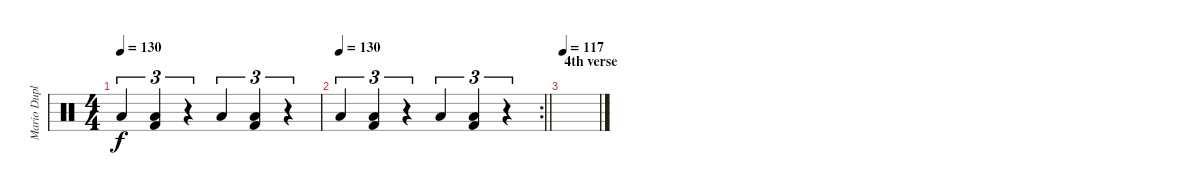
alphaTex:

\track ("Mario Duplantier" "Mario Dupl") {instrument percussion}
\staff {score}
\articulation defaults
\ts (4 4)
\tempo 130
\clef neutral
\ks c "Low Floor Tom (hit)".4{tu (3 2) dy f}
("Low Floor Tom (hit)" "Kick (hit) 2").4{tu (3 2)} r.4{tu (3 2)} "Low Floor Tom (hit)".4{tu (3 2)} ("Low Floor Tom (hit)" "Kick (hit) 2").4{tu (3 2)} r.4{tu (3 2)} |
\rc 2
\tempo 130
\barLineRight lightlight "Low Floor Tom (hit)".4{tu (3 2)}
("Low Floor Tom (hit)" "Kick (hit) 2").4{tu (3 2)} r.4{tu (3 2)} "Low Floor Tom (hit)".4{tu (3 2)} ("Low Floor Tom (hit)" "Kick (hit) 2").4{tu (3 2)} r.4{tu (3 2)} |
\section ("" "4th verse ")
\tempo 117
